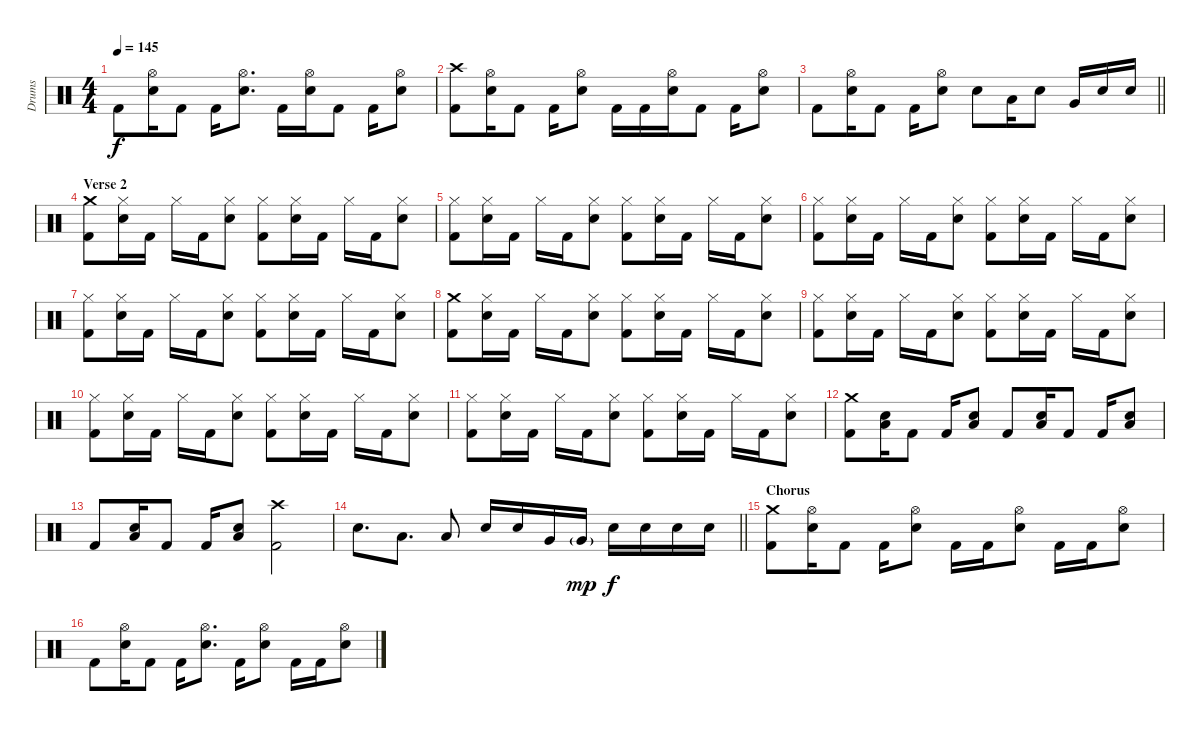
\track ("Drums" "Drums") {instrument percussion}
\staff {score}
\articulation defaults
\ts (4 4)
\tempo 145
\clef neutral
\ks c "Kick (hit) 2".8{dy f}
("Hi-Hat (open)" "Electric Snare (hit)").16 "Kick (hit) 2".8 "Kick (hit) 2".16 ("Hi-Hat (open)" "Electric Snare (hit)").8{d} "Kick (hit) 2".16 ("Hi-Hat (open)" "Electric Snare (hit)").16 "Kick (hit) 2".8 "Kick (hit) 2".16 ("Hi-Hat (open)" "Electric Snare (hit)").8 |
("Crash high (hit)" "Kick (hit) 2").8 ("Hi-Hat (open)" "Electric Snare (hit)").16 "Kick (hit) 2".8 "Kick (hit) 2".16 ("Hi-Hat (open)" "Electric Snare (hit)").8 "Kick (hit) 2".16 "Kick (hit) 2".16 ("Hi-Hat (open)" "Electric Snare (hit)").16 "Kick (hit) 2".8 "Kick (hit) 2".16 ("Hi-Hat (open)" "Electric Snare (hit)").8 |
\barLineRight lightlight "Kick (hit) 2".8
("Hi-Hat (open)" "Electric Snare (hit)").16 "Kick (hit) 2".8 "Kick (hit) 2".16 ("Hi-Hat (open)" "Electric Snare (hit)").8 "Electric Snare (hit)".8 "Low Tom (hit)".16 "Electric Snare (hit)".8 "Very Low Tom (hit)".16 "Electric Snare (hit)".16 "Electric Snare (hit)".16 |
\section ("" "Verse 2")
("Crash medium (hit)" "Kick (hit) 2").8 ("Hi-Hat (closed)" "Electric Snare (hit)").16 "Kick (hit) 2".16 "Hi-Hat (closed)".16 "Kick (hit) 2".16 ("Hi-Hat (closed)" "Electric Snare (hit)").8 ("Hi-Hat (closed)" "Kick (hit) 2").8 ("Hi-Hat (closed)" "Electric Snare (hit)").16 "Kick (hit) 2".16 "Hi-Hat (closed)".16 "Kick (hit) 2".16 ("Hi-Hat (closed)" "Electric Snare (hit)").8 |
("Hi-Hat (closed)" "Kick (hit) 2").8 ("Hi-Hat (closed)" "Electric Snare (hit)").16 "Kick (hit) 2".16 "Hi-Hat (closed)".16 "Kick (hit) 2".16 ("Hi-Hat (closed)" "Electric Snare (hit)").8 ("Hi-Hat (closed)" "Kick (hit) 2").8 ("Hi-Hat (closed)" "Electric Snare (hit)").16 "Kick (hit) 2".16 "Hi-Hat (closed)".16 "Kick (hit) 2".16 ("Hi-Hat (closed)" "Electric Snare (hit)").8 |
("Hi-Hat (closed)" "Kick (hit) 2").8 ("Hi-Hat (closed)" "Electric Snare (hit)").16 "Kick (hit) 2".16 "Hi-Hat (closed)".16 "Kick (hit) 2".16 ("Hi-Hat (closed)" "Electric Snare (hit)").8 ("Hi-Hat (closed)" "Kick (hit) 2").8 ("Hi-Hat (closed)" "Electric Snare (hit)").16 "Kick (hit) 2".16 "Hi-Hat (closed)".16 "Kick (hit) 2".16 ("Hi-Hat (closed)" "Electric Snare (hit)").8 |
("Hi-Hat (closed)" "Kick (hit) 2").8 ("Hi-Hat (closed)" "Electric Snare (hit)").16 "Kick (hit) 2".16 "Hi-Hat (closed)".16 "Kick (hit) 2".16 ("Hi-Hat (closed)" "Electric Snare (hit)").8 ("Hi-Hat (closed)" "Kick (hit) 2").8 ("Hi-Hat (closed)" "Electric Snare (hit)").16 "Kick (hit) 2".16 "Hi-Hat (closed)".16 "Kick (hit) 2".16 ("Hi-Hat (closed)" "Electric Snare (hit)").8 |
("Crash medium (hit)" "Kick (hit) 2").8 ("Hi-Hat (closed)" "Electric Snare (hit)").16 "Kick (hit) 2".16 "Hi-Hat (closed)".16 "Kick (hit) 2".16 ("Hi-Hat (closed)" "Electric Snare (hit)").8 ("Hi-Hat (closed)" "Kick (hit) 2").8 ("Hi-Hat (closed)" "Electric Snare (hit)").16 "Kick (hit) 2".16 "Hi-Hat (closed)".16 "Kick (hit) 2".16 ("Hi-Hat (closed)" "Electric Snare (hit)").8 |
("Hi-Hat (closed)" "Kick (hit) 2").8 ("Hi-Hat (closed)" "Electric Snare (hit)").16 "Kick (hit) 2".16 "Hi-Hat (closed)".16 "Kick (hit) 2".16 ("Hi-Hat (closed)" "Electric Snare (hit)").8 ("Hi-Hat (closed)" "Kick (hit) 2").8 ("Hi-Hat (closed)" "Electric Snare (hit)").16 "Kick (hit) 2".16 "Hi-Hat (closed)".16 "Kick (hit) 2".16 ("Hi-Hat (closed)" "Electric Snare (hit)").8 |
("Hi-Hat (closed)" "Kick (hit) 2").8 ("Hi-Hat (closed)" "Electric Snare (hit)").16 "Kick (hit) 2".16 "Hi-Hat (closed)".16 "Kick (hit) 2".16 ("Hi-Hat (closed)" "Electric Snare (hit)").8 ("Hi-Hat (closed)" "Kick (hit) 2").8 ("Hi-Hat (closed)" "Electric Snare (hit)").16 "Kick (hit) 2".16 "Hi-Hat (closed)".16 "Kick (hit) 2".16 ("Hi-Hat (closed)" "Electric Snare (hit)").8 |
("Hi-Hat (closed)" "Kick (hit) 2").8 ("Hi-Hat (closed)" "Electric Snare (hit)").16 "Kick (hit) 2".16 "Hi-Hat (closed)".16 "Kick (hit) 2".16 ("Hi-Hat (closed)" "Electric Snare (hit)").8 ("Hi-Hat (closed)" "Kick (hit) 2").8 ("Hi-Hat (closed)" "Electric Snare (hit)").16 "Kick (hit) 2".16 "Hi-Hat (closed)".16 "Kick (hit) 2".16 ("Hi-Hat (closed)" "Electric Snare (hit)").8 |
("Crash medium (hit)" "Kick (hit) 2").8 ("Low Floor Tom (hit)" "Electric Snare (hit)").16 "Kick (hit) 2".8 "Kick (hit) 2".16 ("Low Floor Tom (hit)" "Electric Snare (hit)").8 "Kick (hit) 2".8 ("Low Floor Tom (hit)" "Electric Snare (hit)").16 "Kick (hit) 2".8 "Kick (hit) 2".16 ("Low Floor Tom (hit)" "Electric Snare (hit)").8 |
"Kick (hit) 2".8 ("Low Floor Tom (hit)" "Electric Snare (hit)").16 "Kick (hit) 2".8 "Kick (hit) 2".16 ("Low Floor Tom (hit)" "Electric Snare (hit)").8 ("Crash high (hit)" "Kick (hit) 2").2 |
\barLineRight lightlight "Electric Snare (hit)".8{d} "Low Tom (hit)".8{d} "Low Floor Tom (hit)".8 "Electric Snare (hit)".16 "Electric Snare (hit)".16 "Very Low Tom (hit)".16 "Very Low Tom (hit)"{g}.16{dy mp} "Electric Snare (hit)".16{dy f} "Electric Snare (hit)".16 "Electric Snare (hit)".16 "Electric Snare (hit)".16
|
\section ("" "Chorus")
("Crash medium (hit)" "Kick (hit) 2").8 ("Hi-Hat (open)" "Electric Snare (hit)").16 "Kick (hit) 2".8 "Kick (hit) 2".16 ("Hi-Hat (open)" "Electric Snare (hit)").8 "Kick (hit) 2".16 "Kick (hit) 2".16 ("Hi-Hat (open)" "Electric Snare (hit)").8 "Kick (hit) 2".16 "Kick (hit) 2".16 ("Hi-Hat (open)" "Electric Snare (hit)").8 |
"Kick (hit) 2".8 ("Hi-Hat (open)" "Electric Snare (hit)").16 "Kick (hit) 2".8 "Kick (hit) 2".16 ("Hi-Hat (open)" "Electric Snare (hit)").8{d} "Kick (hit) 2".16 ("Hi-Hat (open)" "Electric Snare (hit)").8 "Kick (hit) 2".16 "Kick (hit) 2".16 ("Hi-Hat (open)" "Electric Snare (hit)").8
